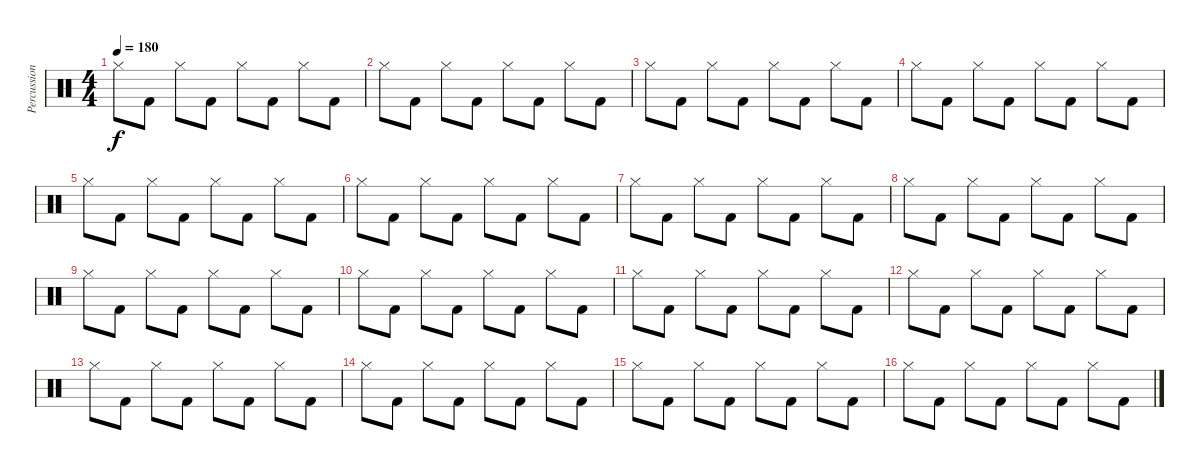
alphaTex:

\track ("Percussions" "Percussion") {instrument percussion}
\staff {score}
\articulation defaults
\ts (4 4)
\tempo 180
\clef neutral
\ks c "Hi-Hat (closed)".8{dy f} "Kick (hit) 2".8 "Hi-Hat (closed)".8 "Kick (hit) 2".8 "Hi-Hat (closed)".8 "Kick (hit) 2".8 "Hi-Hat (closed)".8 "Kick (hit) 2".8
|
"Hi-Hat (closed)".8 "Kick (hit) 2".8 "Hi-Hat (closed)".8 "Kick (hit) 2".8 "Hi-Hat (closed)".8 "Kick (hit) 2".8 "Hi-Hat (closed)".8 "Kick (hit) 2".8 |
"Hi-Hat (closed)".8 "Kick (hit) 2".8 "Hi-Hat (closed)".8 "Kick (hit) 2".8 "Hi-Hat (closed)".8 "Kick (hit) 2".8 "Hi-Hat (closed)".8 "Kick (hit) 2".8 |
"Hi-Hat (closed)".8 "Kick (hit) 2".8 "Hi-Hat (closed)".8 "Kick (hit) 2".8 "Hi-Hat (closed)".8 "Kick (hit) 2".8 "Hi-Hat (closed)".8 "Kick (hit) 2".8 |
"Hi-Hat (closed)".8 "Kick (hit) 2".8 "Hi-Hat (closed)".8 "Kick (hit) 2".8 "Hi-Hat (closed)".8 "Kick (hit) 2".8 "Hi-Hat (closed)".8 "Kick (hit) 2".8 |
"Hi-Hat (closed)".8 "Kick (hit) 2".8 "Hi-Hat (closed)".8 "Kick (hit) 2".8 "Hi-Hat (closed)".8 "Kick (hit) 2".8 "Hi-Hat (closed)".8 "Kick (hit) 2".8 |
"Hi-Hat (closed)".8 "Kick (hit) 2".8 "Hi-Hat (closed)".8 "Kick (hit) 2".8 "Hi-Hat (closed)".8 "Kick (hit) 2".8 "Hi-Hat (closed)".8 "Kick (hit) 2".8 |
"Hi-Hat (closed)".8 "Kick (hit) 2".8 "Hi-Hat (closed)".8 "Kick (hit) 2".8 "Hi-Hat (closed)".8 "Kick (hit) 2".8 "Hi-Hat (closed)".8 "Kick (hit) 2".8 |
"Hi-Hat (closed)".8 "Kick (hit) 2".8 "Hi-Hat (closed)".8 "Kick (hit) 2".8 "Hi-Hat (closed)".8 "Kick (hit) 2".8 "Hi-Hat (closed)".8 "Kick (hit) 2".8 |
"Hi-Hat (closed)".8 "Kick (hit) 2".8 "Hi-Hat (closed)".8 "Kick (hit) 2".8 "Hi-Hat (closed)".8 "Kick (hit) 2".8 "Hi-Hat (closed)".8 "Kick (hit) 2".8 |
"Hi-Hat (closed)".8 "Kick (hit) 2".8 "Hi-Hat (closed)".8 "Kick (hit) 2".8 "Hi-Hat (closed)".8 "Kick (hit) 2".8 "Hi-Hat (closed)".8 "Kick (hit) 2".8 |
"Hi-Hat (closed)".8 "Kick (hit) 2".8 "Hi-Hat (closed)".8 "Kick (hit) 2".8 "Hi-Hat (closed)".8 "Kick (hit) 2".8 "Hi-Hat (closed)".8 "Kick (hit) 2".8 |
"Hi-Hat (closed)".8 "Kick (hit) 2".8 "Hi-Hat (closed)".8 "Kick (hit) 2".8 "Hi-Hat (closed)".8 "Kick (hit) 2".8 "Hi-Hat (closed)".8 "Kick (hit) 2".8 |
"Hi-Hat (closed)".8 "Kick (hit) 2".8 "Hi-Hat (closed)".8 "Kick (hit) 2".8 "Hi-Hat (closed)".8 "Kick (hit) 2".8 "Hi-Hat (closed)".8 "Kick (hit) 2".8 |
"Hi-Hat (closed)".8 "Kick (hit) 2".8 "Hi-Hat (closed)".8 "Kick (hit) 2".8 "Hi-Hat (closed)".8 "Kick (hit) 2".8 "Hi-Hat (closed)".8 "Kick (hit) 2".8 |
"Hi-Hat (closed)".8 "Kick (hit) 2".8 "Hi-Hat (closed)".8 "Kick (hit) 2".8 "Hi-Hat (closed)".8 "Kick (hit) 2".8 "Hi-Hat (closed)".8 "Kick (hit) 2".8
